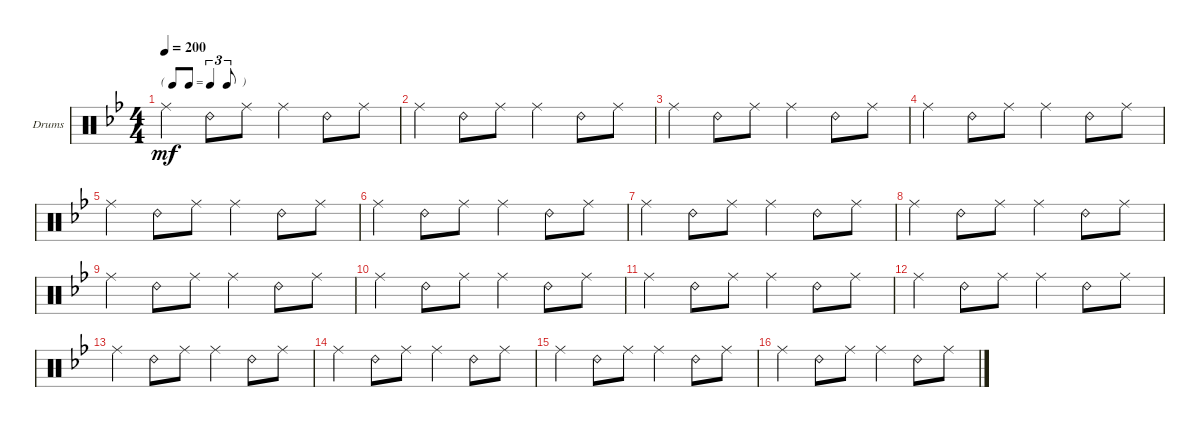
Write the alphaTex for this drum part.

\defaultSystemsLayout 4
\bracketExtendMode groupsimilarinstruments
\firstSystemTrackNameOrientation horizontal
\otherSystemsTrackNameOrientation horizontal
\track ("Drumkit" "Drums") {instrument percussion}
\staff {score}
\articulation defaults
\ts (4 4)
\tf triplet8th
\tempo 200
\clef neutral
\scale
0.333333
\ks bb "Ride (middle)".4{dy mf} "Ride (bell) 2".8 "Ride (middle)".8 "Ride (middle)".4 "Ride (bell) 2".8 "Ride (middle)".8
|
\scale
0.333333 "Ride (middle)".4 "Ride (bell) 2".8 "Ride (middle)".8 "Ride (middle)".4 "Ride (bell) 2".8 "Ride (middle)".8 |
"Ride (middle)".4 "Ride (bell) 2".8 "Ride (middle)".8 "Ride (middle)".4 "Ride (bell) 2".8 "Ride (middle)".8 |
"Ride (middle)".4 "Ride (bell) 2".8 "Ride (middle)".8 "Ride (middle)".4 "Ride (bell) 2".8 "Ride (middle)".8 |
"Ride (middle)".4 "Ride (bell) 2".8 "Ride (middle)".8 "Ride (middle)".4 "Ride (bell) 2".8 "Ride (middle)".8 |
"Ride (middle)".4 "Ride (bell) 2".8 "Ride (middle)".8 "Ride (middle)".4 "Ride (bell) 2".8 "Ride (middle)".8 |
"Ride (middle)".4 "Ride (bell) 2".8 "Ride (middle)".8 "Ride (middle)".4 "Ride (bell) 2".8 "Ride (middle)".8 |
"Ride (middle)".4 "Ride (bell) 2".8 "Ride (middle)".8 "Ride (middle)".4 "Ride (bell) 2".8 "Ride (middle)".8 |
"Ride (middle)".4 "Ride (bell) 2".8 "Ride (middle)".8 "Ride (middle)".4 "Ride (bell) 2".8 "Ride (middle)".8 |
"Ride (middle)".4 "Ride (bell) 2".8 "Ride (middle)".8 "Ride (middle)".4 "Ride (bell) 2".8 "Ride (middle)".8 |
"Ride (middle)".4 "Ride (bell) 2".8 "Ride (middle)".8 "Ride (middle)".4 "Ride (bell) 2".8 "Ride (middle)".8 |
"Ride (middle)".4 "Ride (bell) 2".8 "Ride (middle)".8 "Ride (middle)".4 "Ride (bell) 2".8 "Ride (middle)".8 |
"Ride (middle)".4 "Ride (bell) 2".8 "Ride (middle)".8 "Ride (middle)".4 "Ride (bell) 2".8 "Ride (middle)".8 |
"Ride (middle)".4 "Ride (bell) 2".8 "Ride (middle)".8 "Ride (middle)".4 "Ride (bell) 2".8 "Ride (middle)".8 |
"Ride (middle)".4 "Ride (bell) 2".8 "Ride (middle)".8 "Ride (middle)".4 "Ride (bell) 2".8 "Ride (middle)".8 |
"Ride (middle)".4 "Ride (bell) 2".8 "Ride (middle)".8 "Ride (middle)".4 "Ride (bell) 2".8 "Ride (middle)".8
